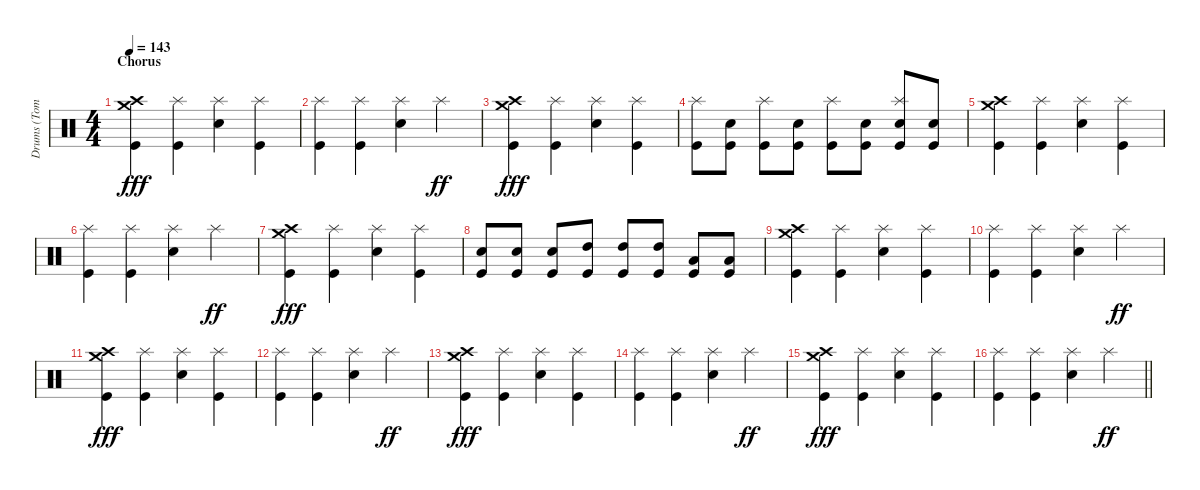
\track ("Drums (Tommy Clufetos)" "Drums (Tom") {instrument percussion}
\staff {score}
\articulation defaults
\ts (4 4)
\section ("" "Chorus")
\tempo 143
\clef neutral
\ks c
("Crash high (hit)" "Crash medium (hit)" "Kick (hit)").4{dy fff} ("Splash (hit)" "Kick (hit)").4 ("Splash (hit)" "Electric Snare (hit)").4 ("Splash (hit)" "Kick (hit)").4 |
("Splash (hit)" "Kick (hit)").4 ("Splash (hit)" "Kick (hit)").4 ("Splash (hit)" "Electric Snare (hit)").4 "Splash (hit)".4{dy ff} |
("Crash high (hit)" "Crash medium (hit)" "Kick (hit)").4{dy fff} ("Splash (hit)" "Kick (hit)").4 ("Splash (hit)" "Electric Snare (hit)").4 ("Splash (hit)" "Kick (hit)").4 |
("Splash (hit)" "Kick (hit)").8 ("Electric Snare (hit)" "Kick (hit)").8 ("Splash (hit)" "Kick (hit)").8 ("Electric Snare (hit)" "Kick (hit)").8 ("Splash (hit)" "Kick (hit)").8 ("Electric Snare (hit)" "Kick (hit)").8 ("Splash (hit)" "Electric Snare (hit)" "Kick (hit)").8 ("Electric Snare (hit)" "Kick (hit)").8 |
("Crash high (hit)" "Crash medium (hit)" "Kick (hit)").4 ("Splash (hit)" "Kick (hit)").4 ("Splash (hit)" "Electric Snare (hit)").4 ("Splash (hit)" "Kick (hit)").4 |
("Splash (hit)" "Kick (hit)").4 ("Splash (hit)" "Kick (hit)").4 ("Splash (hit)" "Electric Snare (hit)").4 "Splash (hit)".4{dy ff} |
("Crash high (hit)" "Crash medium (hit)" "Kick (hit)").4{dy fff} ("Splash (hit)" "Kick (hit)").4 ("Splash (hit)" "Electric Snare (hit)").4 ("Splash (hit)" "Kick (hit)").4 |
("Electric Snare (hit)" "Kick (hit)").8 ("Electric Snare (hit)" "Kick (hit)").8 ("Electric Snare (hit)" "Kick (hit)").8 ("High Tom (hit)" "Kick (hit)").8 ("High Tom (hit)" "Kick (hit)").8 ("High Tom (hit)" "Kick (hit)").8 ("Low Tom (hit)" "Kick (hit)").8 ("Low Tom (hit)" "Kick (hit)").8 |
("Crash high (hit)" "Crash medium (hit)" "Kick (hit)").4 ("Splash (hit)" "Kick (hit)").4 ("Splash (hit)" "Electric Snare (hit)").4 ("Splash (hit)" "Kick (hit)").4 |
("Splash (hit)" "Kick (hit)").4 ("Splash (hit)" "Kick (hit)").4 ("Splash (hit)" "Electric Snare (hit)").4 "Splash (hit)".4{dy ff} |
("Crash high (hit)" "Crash medium (hit)" "Kick (hit)").4{dy fff} ("Splash (hit)" "Kick (hit)").4 ("Splash (hit)" "Electric Snare (hit)").4 ("Splash (hit)" "Kick (hit)").4 |
("Splash (hit)" "Kick (hit)").4 ("Splash (hit)" "Kick (hit)").4 ("Splash (hit)" "Electric Snare (hit)").4 "Splash (hit)".4{dy ff} |
("Crash high (hit)" "Crash medium (hit)" "Kick (hit)").4{dy fff} ("Splash (hit)" "Kick (hit)").4 ("Splash (hit)" "Electric Snare (hit)").4 ("Splash (hit)" "Kick (hit)").4 |
("Splash (hit)" "Kick (hit)").4 ("Splash (hit)" "Kick (hit)").4 ("Splash (hit)" "Electric Snare (hit)").4 "Splash (hit)".4{dy ff} |
("Crash high (hit)" "Crash medium (hit)" "Kick (hit)").4{dy fff} ("Splash (hit)" "Kick (hit)").4 ("Splash (hit)" "Electric Snare (hit)").4 ("Splash (hit)" "Kick (hit)").4 |
\barLineRight lightlight
("Splash (hit)" "Kick (hit)").4 ("Splash (hit)" "Kick (hit)").4 ("Splash (hit)" "Electric Snare (hit)").4 "Splash (hit)".4{dy ff}
